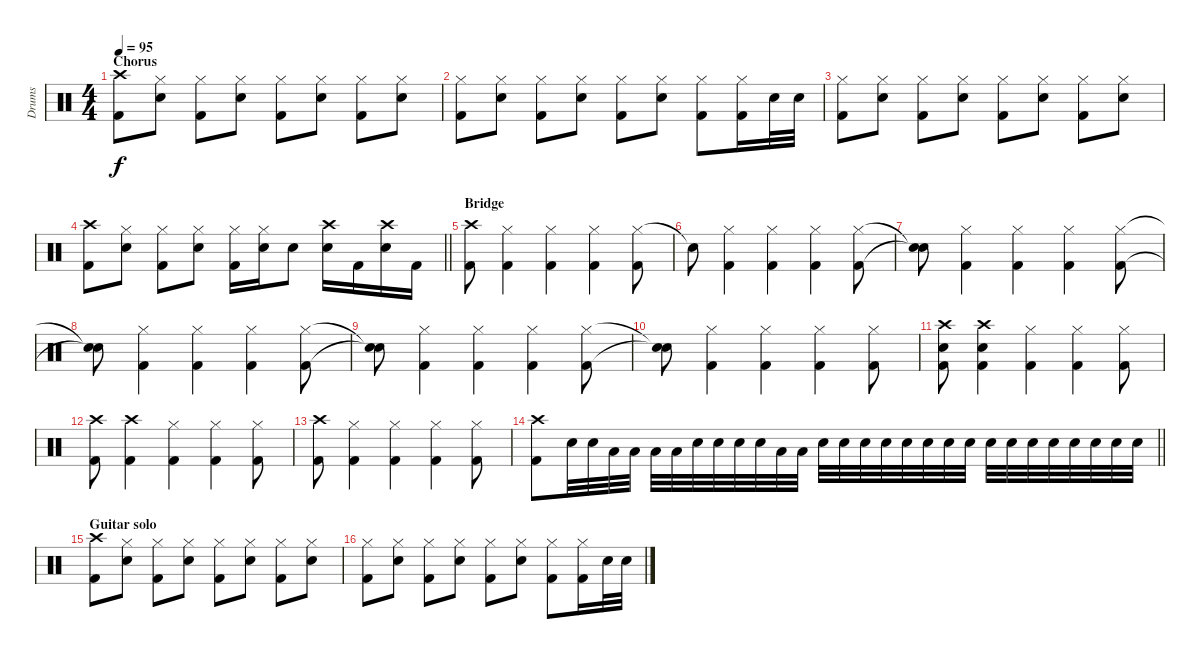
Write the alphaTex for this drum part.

\track ("Drums" "Drums") {instrument percussion}
\staff {score}
\articulation defaults
\ts (4 4)
\section ("" "Chorus")
\tempo 95
\clef neutral
\ks c
("Crash high (hit)" "Kick (hit) 2").8{dy f} ("Hi-Hat (closed)" "Snare (hit) 2").8 ("Hi-Hat (closed)" "Kick (hit) 2").8 ("Hi-Hat (closed)" "Snare (hit) 2").8 ("Hi-Hat (closed)" "Kick (hit) 2").8 ("Hi-Hat (closed)" "Snare (hit) 2").8 ("Hi-Hat (closed)" "Kick (hit) 2").8 ("Hi-Hat (closed)" "Snare (hit) 2").8 |
("Hi-Hat (closed)" "Kick (hit) 2").8 ("Hi-Hat (closed)" "Snare (hit) 2").8 ("Hi-Hat (closed)" "Kick (hit) 2").8 ("Hi-Hat (closed)" "Snare (hit) 2").8 ("Hi-Hat (closed)" "Kick (hit) 2").8 ("Hi-Hat (closed)" "Snare (hit) 2").8 ("Hi-Hat (closed)" "Kick (hit) 2").8 ("Hi-Hat (closed)" "Kick (hit) 2").16 "Snare (hit) 2".32 "Snare (hit) 2".32 |
("Hi-Hat (closed)" "Kick (hit) 2").8 ("Hi-Hat (closed)" "Snare (hit) 2").8 ("Hi-Hat (closed)" "Kick (hit) 2").8 ("Hi-Hat (closed)" "Snare (hit) 2").8 ("Hi-Hat (closed)" "Kick (hit) 2").8 ("Hi-Hat (closed)" "Snare (hit) 2").8 ("Hi-Hat (closed)" "Kick (hit) 2").8 ("Hi-Hat (closed)" "Snare (hit) 2").8 |
\barLineRight lightlight
("Crash high (hit)" "Kick (hit) 2").8 ("Hi-Hat (closed)" "Snare (hit) 2").8 ("Hi-Hat (closed)" "Kick (hit) 2").8 ("Hi-Hat (closed)" "Snare (hit) 2").8 ("Hi-Hat (closed)" "Kick (hit) 2").16 ("Hi-Hat (closed)" "Snare (hit) 2").16 "Snare (hit) 2".8 ("Crash high (hit)" "Snare (hit) 2").16 "Kick (hit) 2".16 ("Crash high (hit)" "Snare (hit) 2").16 "Kick (hit) 2".16 |
\section ("" "Bridge")
("Crash high (hit)" "Kick (hit) 2").8 ("Hi-Hat (closed)" "Kick (hit) 2").4 ("Hi-Hat (closed)" "Kick (hit) 2").4 ("Hi-Hat (closed)" "Kick (hit) 2").4 ("Hi-Hat (closed)" "Kick (hit) 2").8 |
"Snare (hit)"{t}.8 ("Hi-Hat (closed)" "Kick (hit) 2").4 ("Hi-Hat (closed)" "Kick (hit) 2").4 ("Hi-Hat (closed)" "Kick (hit) 2").4 ("Hi-Hat (closed)" "Kick (hit) 2").8 |
("Snare (hit)"{t} "Snare (hit)"{t}).8 ("Hi-Hat (closed)" "Kick (hit) 2").4 ("Hi-Hat (closed)" "Kick (hit) 2").4 ("Hi-Hat (closed)" "Kick (hit) 2").4 ("Hi-Hat (closed)" "Kick (hit) 2").8 |
("Snare (hit)"{t} "Snare (hit)"{t}).8 ("Hi-Hat (closed)" "Kick (hit) 2").4 ("Hi-Hat (closed)" "Kick (hit) 2").4 ("Hi-Hat (closed)" "Kick (hit) 2").4 ("Hi-Hat (closed)" "Kick (hit) 2").8 |
("Snare (hit)"{t} "Snare (hit)"{t}).8 ("Hi-Hat (closed)" "Kick (hit) 2").4 ("Hi-Hat (closed)" "Kick (hit) 2").4 ("Hi-Hat (closed)" "Kick (hit) 2").4 ("Hi-Hat (closed)" "Kick (hit) 2").8 |
("Snare (hit)"{t} "Snare (hit)"{t}).8 ("Hi-Hat (closed)" "Kick (hit) 2").4 ("Hi-Hat (closed)" "Kick (hit) 2").4 ("Hi-Hat (closed)" "Kick (hit) 2").4 ("Hi-Hat (closed)" "Kick (hit) 2").8 |
("Crash high (hit)" "Snare (hit) 2" "Kick (hit) 2").8 ("Crash high (hit)" "Snare (hit) 2" "Kick (hit) 2").4 ("Hi-Hat (closed)" "Kick (hit) 2").4 ("Hi-Hat (closed)" "Kick (hit) 2").4 ("Hi-Hat (closed)" "Kick (hit) 2").8 |
("Crash high (hit)" "Kick (hit) 2").8 ("Crash high (hit)" "Kick (hit) 2").4 ("Hi-Hat (closed)" "Kick (hit) 2").4 ("Hi-Hat (closed)" "Kick (hit) 2").4 ("Hi-Hat (closed)" "Kick (hit) 2").8 |
("Crash high (hit)" "Kick (hit) 2").8 ("Hi-Hat (closed)" "Kick (hit) 2").4 ("Hi-Hat (closed)" "Kick (hit) 2").4 ("Hi-Hat (closed)" "Kick (hit) 2").4 ("Hi-Hat (closed)" "Kick (hit) 2").8 |
\barLineRight lightlight
("Crash high (hit)" "Kick (hit) 2").8 "Snare (hit) 2".32 "Snare (hit) 2".32 "Low Tom (hit)".32 "Low Tom (hit)".32 "Low Tom (hit)".32 "Low Tom (hit)".32 "Electric Snare (hit)".32 "Electric Snare (hit)".32 "Electric Snare (hit)".32 "Electric Snare (hit)".32 "Low Tom (hit)".32 "Low Tom (hit)".32 "Snare (hit) 2".32 "Snare (hit) 2".32 "Snare (hit) 2".32 "Snare (hit) 2".32 "Snare (hit) 2".32 "Snare (hit) 2".32 "Snare (hit) 2".32 "Snare (hit) 2".32 "Snare (hit) 2".32 "Snare (hit) 2".32 "Snare (hit) 2".32 "Snare (hit) 2".32 "Snare (hit) 2".32 "Snare (hit) 2".32 "Snare (hit) 2".32 "Snare (hit) 2".32 |
\section ("" "Guitar solo")
("Crash high (hit)" "Kick (hit) 2").8 ("Hi-Hat (closed)" "Snare (hit) 2").8 ("Hi-Hat (closed)" "Kick (hit) 2").8 ("Hi-Hat (closed)" "Snare (hit) 2").8 ("Hi-Hat (closed)" "Kick (hit) 2").8 ("Hi-Hat (closed)" "Snare (hit) 2").8 ("Hi-Hat (closed)" "Kick (hit) 2").8 ("Hi-Hat (closed)" "Snare (hit) 2").8 |
("Hi-Hat (closed)" "Kick (hit) 2").8 ("Hi-Hat (closed)" "Snare (hit) 2").8 ("Hi-Hat (closed)" "Kick (hit) 2").8 ("Hi-Hat (closed)" "Snare (hit) 2").8 ("Hi-Hat (closed)" "Kick (hit) 2").8 ("Hi-Hat (closed)" "Snare (hit) 2").8 ("Hi-Hat (closed)" "Kick (hit) 2").8 ("Hi-Hat (closed)" "Kick (hit) 2").16 "Snare (hit) 2".32 "Snare (hit) 2".32
